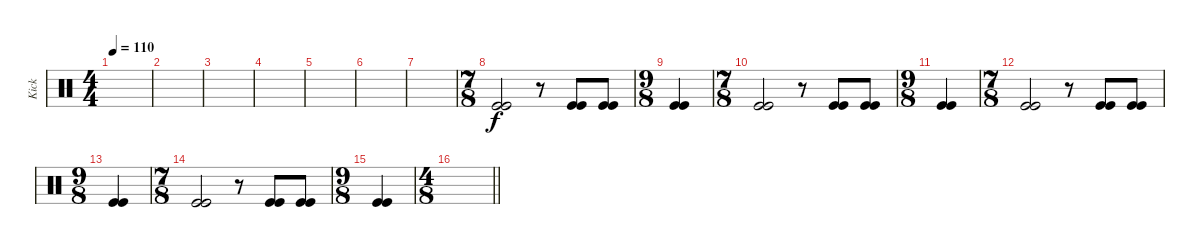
\track ("Kick" "Kick") {instrument percussion}
\staff {score}
\articulation defaults
\ts (4 4)
\tempo 110
\clef neutral
\ks c
|
|
|
|
|
|
|
\ts (7 8)
("Kick (hit)" "Kick (hit)").2 r.8 ("Kick (hit)" "Kick (hit)").8 ("Kick (hit)" "Kick (hit)").8 |
\ts (9 8)
("Kick (hit)" "Kick (hit)").4 |
\ts (7 8)
("Kick (hit)" "Kick (hit)").2 r.8 ("Kick (hit)" "Kick (hit)").8 ("Kick (hit)" "Kick (hit)").8 |
\ts (9 8)
("Kick (hit)" "Kick (hit)").4 |
\ts (7 8)
("Kick (hit)" "Kick (hit)").2 r.8 ("Kick (hit)" "Kick (hit)").8 ("Kick (hit)" "Kick (hit)").8 |
\ts (9 8)
("Kick (hit)" "Kick (hit)").4 |
\ts (7 8)
("Kick (hit)" "Kick (hit)").2 r.8 ("Kick (hit)" "Kick (hit)").8 ("Kick (hit)" "Kick (hit)").8 |
\ts (9 8)
("Kick (hit)" "Kick (hit)").4 |
\ts (4 8)
\barLineRight lightlight
